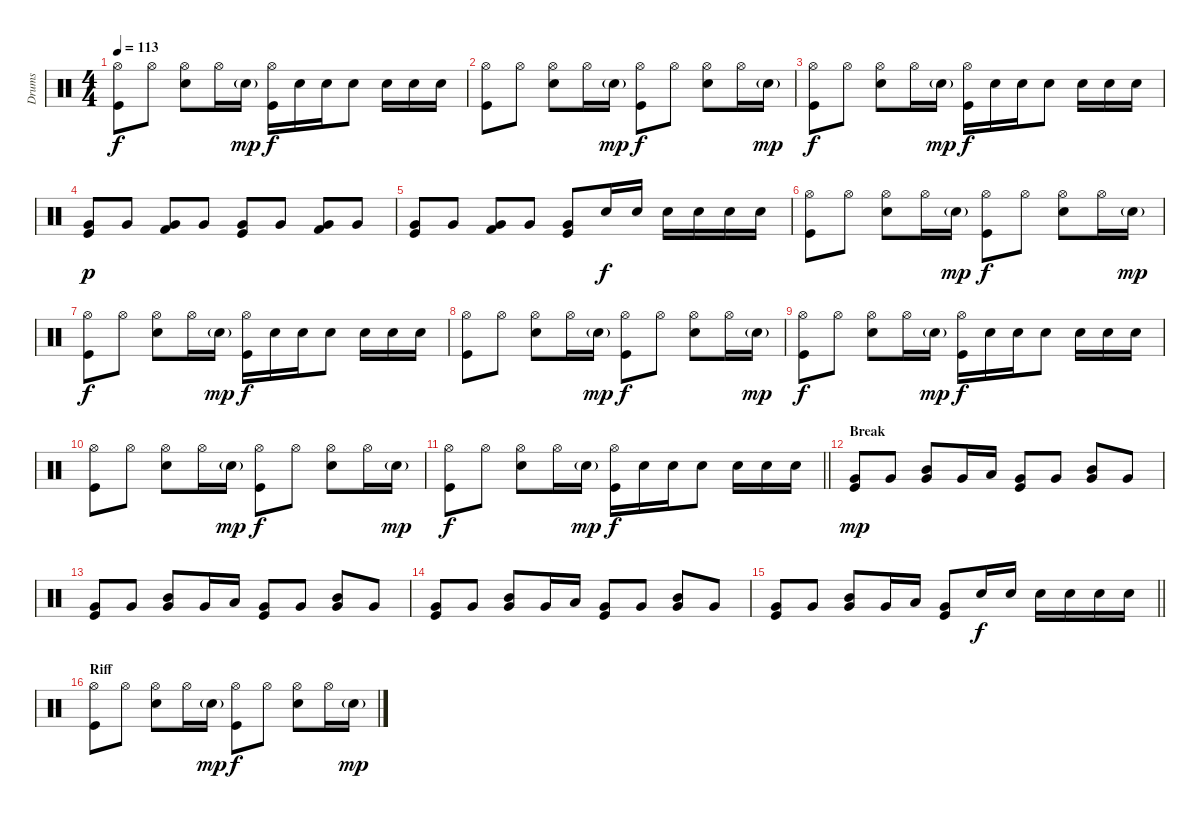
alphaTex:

\track ("Drums" "Drums") {instrument percussion}
\staff {score}
\articulation defaults
\ts (4 4)
\tempo 113
\clef neutral
\ks c
("Hi-Hat (open)" "Kick (hit)").8{dy f} "Hi-Hat (open)".8 ("Hi-Hat (open)" "Snare (hit) 2").8 "Hi-Hat (open)".16 "Snare (hit) 2"{g}.16{dy mp} ("Hi-Hat (open)" "Kick (hit)").16{dy f} "Snare (hit) 2".16 "Snare (hit) 2".16 "Snare (hit) 2".8 "Snare (hit) 2".16 "Snare (hit) 2".16 "Snare (hit) 2".16 |
("Hi-Hat (open)" "Kick (hit)").8 "Hi-Hat (open)".8 ("Hi-Hat (open)" "Snare (hit) 2").8 "Hi-Hat (open)".16 "Snare (hit) 2"{g}.16{dy mp} ("Hi-Hat (open)" "Kick (hit)").8{dy f} "Hi-Hat (open)".8 ("Hi-Hat (open)" "Snare (hit) 2").8 "Hi-Hat (open)".16 "Snare (hit) 2"{g}.16{dy mp} |
("Hi-Hat (open)" "Kick (hit)").8{dy f} "Hi-Hat (open)".8 ("Hi-Hat (open)" "Snare (hit) 2").8 "Hi-Hat (open)".16 "Snare (hit) 2"{g}.16{dy mp} ("Hi-Hat (open)" "Kick (hit)").16{dy f} "Snare (hit) 2".16 "Snare (hit) 2".16 "Snare (hit) 2".8 "Snare (hit) 2".16 "Snare (hit) 2".16 "Snare (hit) 2".16 |
("Very Low Tom (hit)" "Kick (hit)").8{dy p} "Very Low Tom (hit)".8 ("Kick (hit) 2" "Very Low Tom (hit)").8 "Very Low Tom (hit)".8 ("Very Low Tom (hit)" "Kick (hit)").8 "Very Low Tom (hit)".8 ("Kick (hit) 2" "Very Low Tom (hit)").8 "Very Low Tom (hit)".8 |
("Very Low Tom (hit)" "Kick (hit)").8 "Very Low Tom (hit)".8 ("Kick (hit) 2" "Very Low Tom (hit)").8 "Very Low Tom (hit)".8 ("Very Low Tom (hit)" "Kick (hit)").8 "Snare (hit) 2".16{dy f} "Snare (hit) 2".16 "Snare (hit) 2".16 "Snare (hit) 2".16 "Snare (hit) 2".16 "Snare (hit) 2".16 |
("Hi-Hat (open)" "Kick (hit)").8 "Hi-Hat (open)".8 ("Hi-Hat (open)" "Snare (hit) 2").8 "Hi-Hat (open)".16 "Snare (hit) 2"{g}.16{dy mp} ("Hi-Hat (open)" "Kick (hit)").8{dy f} "Hi-Hat (open)".8 ("Hi-Hat (open)" "Snare (hit) 2").8 "Hi-Hat (open)".16 "Snare (hit) 2"{g}.16{dy mp} |
("Hi-Hat (open)" "Kick (hit)").8{dy f} "Hi-Hat (open)".8 ("Hi-Hat (open)" "Snare (hit) 2").8 "Hi-Hat (open)".16 "Snare (hit) 2"{g}.16{dy mp} ("Hi-Hat (open)" "Kick (hit)").16{dy f} "Snare (hit) 2".16 "Snare (hit) 2".16 "Snare (hit) 2".8 "Snare (hit) 2".16 "Snare (hit) 2".16 "Snare (hit) 2".16 |
("Hi-Hat (open)" "Kick (hit)").8 "Hi-Hat (open)".8 ("Hi-Hat (open)" "Snare (hit) 2").8 "Hi-Hat (open)".16 "Snare (hit) 2"{g}.16{dy mp} ("Hi-Hat (open)" "Kick (hit)").8{dy f} "Hi-Hat (open)".8 ("Hi-Hat (open)" "Snare (hit) 2").8 "Hi-Hat (open)".16 "Snare (hit) 2"{g}.16{dy mp} |
("Hi-Hat (open)" "Kick (hit)").8{dy f} "Hi-Hat (open)".8 ("Hi-Hat (open)" "Snare (hit) 2").8 "Hi-Hat (open)".16 "Snare (hit) 2"{g}.16{dy mp} ("Hi-Hat (open)" "Kick (hit)").16{dy f} "Snare (hit) 2".16 "Snare (hit) 2".16 "Snare (hit) 2".8 "Snare (hit) 2".16 "Snare (hit) 2".16 "Snare (hit) 2".16 |
("Hi-Hat (open)" "Kick (hit)").8 "Hi-Hat (open)".8 ("Hi-Hat (open)" "Snare (hit) 2").8 "Hi-Hat (open)".16 "Snare (hit) 2"{g}.16{dy mp} ("Hi-Hat (open)" "Kick (hit)").8{dy f} "Hi-Hat (open)".8 ("Hi-Hat (open)" "Snare (hit) 2").8 "Hi-Hat (open)".16 "Snare (hit) 2"{g}.16{dy mp} |
\barLineRight lightlight
("Hi-Hat (open)" "Kick (hit)").8{dy f} "Hi-Hat (open)".8 ("Hi-Hat (open)" "Snare (hit) 2").8 "Hi-Hat (open)".16 "Snare (hit) 2"{g}.16{dy mp} ("Hi-Hat (open)" "Kick (hit)").16{dy f} "Snare (hit) 2".16 "Snare (hit) 2".16 "Snare (hit) 2".8 "Snare (hit) 2".16 "Snare (hit) 2".16 "Snare (hit) 2".16 |
\section ("" "Break")
("Very Low Tom (hit)" "Kick (hit)").8{dy mp} "Very Low Tom (hit)".8 ("Mid Tom (hit)" "Very Low Tom (hit)").8 "Very Low Tom (hit)".16 "Low Tom (hit)".16 ("Very Low Tom (hit)" "Kick (hit)").8 "Very Low Tom (hit)".8 ("Mid Tom (hit)" "Very Low Tom (hit)").8 "Very Low Tom (hit)".8 |
("Very Low Tom (hit)" "Kick (hit)").8 "Very Low Tom (hit)".8 ("Mid Tom (hit)" "Very Low Tom (hit)").8 "Very Low Tom (hit)".16 "Low Tom (hit)".16 ("Very Low Tom (hit)" "Kick (hit)").8 "Very Low Tom (hit)".8 ("Mid Tom (hit)" "Very Low Tom (hit)").8 "Very Low Tom (hit)".8 |
("Very Low Tom (hit)" "Kick (hit)").8 "Very Low Tom (hit)".8 ("Mid Tom (hit)" "Very Low Tom (hit)").8 "Very Low Tom (hit)".16 "Low Tom (hit)".16 ("Very Low Tom (hit)" "Kick (hit)").8 "Very Low Tom (hit)".8 ("Mid Tom (hit)" "Very Low Tom (hit)").8 "Very Low Tom (hit)".8 |
\barLineRight lightlight
("Very Low Tom (hit)" "Kick (hit)").8 "Very Low Tom (hit)".8 ("Mid Tom (hit)" "Very Low Tom (hit)").8 "Very Low Tom (hit)".16 "Low Tom (hit)".16 ("Very Low Tom (hit)" "Kick (hit)").8 "Snare (hit) 2".16{dy f} "Snare (hit) 2".16 "Snare (hit) 2".16 "Snare (hit) 2".16 "Snare (hit) 2".16 "Snare (hit) 2".16 |
\section ("" "Riff")
("Hi-Hat (open)" "Kick (hit)").8 "Hi-Hat (open)".8 ("Hi-Hat (open)" "Snare (hit) 2").8 "Hi-Hat (open)".16 "Snare (hit) 2"{g}.16{dy mp} ("Hi-Hat (open)" "Kick (hit)").8{dy f} "Hi-Hat (open)".8 ("Hi-Hat (open)" "Snare (hit) 2").8 "Hi-Hat (open)".16 "Snare (hit) 2"{g}.16{dy mp}
